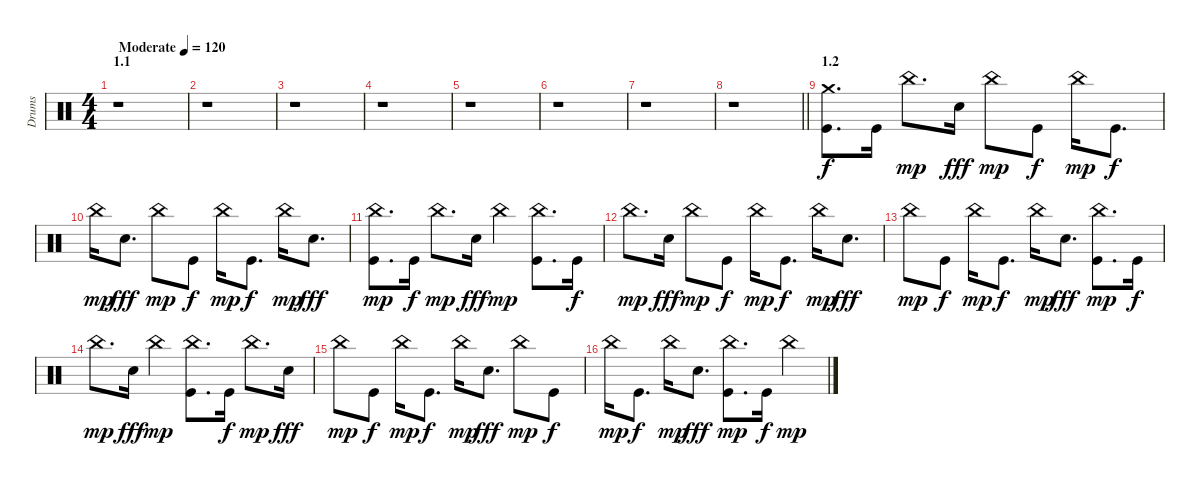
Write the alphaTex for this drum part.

\track ("Drums" "Drums") {instrument percussion}
\staff {score}
\articulation defaults
\ts (4 4)
\section ("" "1.1")
\tempo (120 "Moderate")
\clef neutral
\ks c
r.1{dy f} |
r.1 |
r.1 |
r.1 |
r.1 |
r.1 |
r.1 |
\barLineRight lightlight
r.1 |
\section ("" "1.2")
("Crash medium (hit)" "Kick (hit)").8{d} "Kick (hit)".16 "China (hit)".8{d dy mp} "Snare (hit) 2".16{dy fff} "China (hit)".8{dy mp} "Kick (hit)".8{dy f} "China (hit)".16{dy mp} "Kick (hit)".8{d dy f} |
"China (hit)".16{dy mp} "Snare (hit) 2".8{d dy fff} "China (hit)".8{dy mp} "Kick (hit)".8{dy f} "China (hit)".16{dy mp} "Kick (hit)".8{d dy f} "China (hit)".16{dy mp} "Snare (hit) 2".8{d dy fff} |
("China (hit)" "Kick (hit)").8{d dy mp} "Kick (hit)".16{dy f} "China (hit)".8{d dy mp} "Snare (hit) 2".16{dy fff} "China (hit)".4{dy mp} ("China (hit)" "Kick (hit)").8{d} "Kick (hit)".16{dy f} |
"China (hit)".8{d dy mp} "Snare (hit) 2".16{dy fff} "China (hit)".8{dy mp} "Kick (hit)".8{dy f} "China (hit)".16{dy mp} "Kick (hit)".8{d dy f} "China (hit)".16{dy mp} "Snare (hit) 2".8{d dy fff} |
"China (hit)".8{dy mp} "Kick (hit)".8{dy f} "China (hit)".16{dy mp} "Kick (hit)".8{d dy f} "China (hit)".16{dy mp} "Snare (hit) 2".8{d dy fff} ("China (hit)" "Kick (hit)").8{d dy mp} "Kick (hit)".16{dy f} |
"China (hit)".8{d dy mp} "Snare (hit) 2".16{dy fff} "China (hit)".4{dy mp} ("China (hit)" "Kick (hit)").8{d} "Kick (hit)".16{dy f} "China (hit)".8{d dy mp} "Snare (hit) 2".16{dy fff} |
"China (hit)".8{dy mp} "Kick (hit)".8{dy f} "China (hit)".16{dy mp} "Kick (hit)".8{d dy f} "China (hit)".16{dy mp} "Snare (hit) 2".8{d dy fff} "China (hit)".8{dy mp} "Kick (hit)".8{dy f} |
"China (hit)".16{dy mp} "Kick (hit)".8{d dy f} "China (hit)".16{dy mp} "Snare (hit) 2".8{d dy fff} ("China (hit)" "Kick (hit)").8{d dy mp} "Kick (hit)".16{dy f} "China (hit)".4{dy mp}
